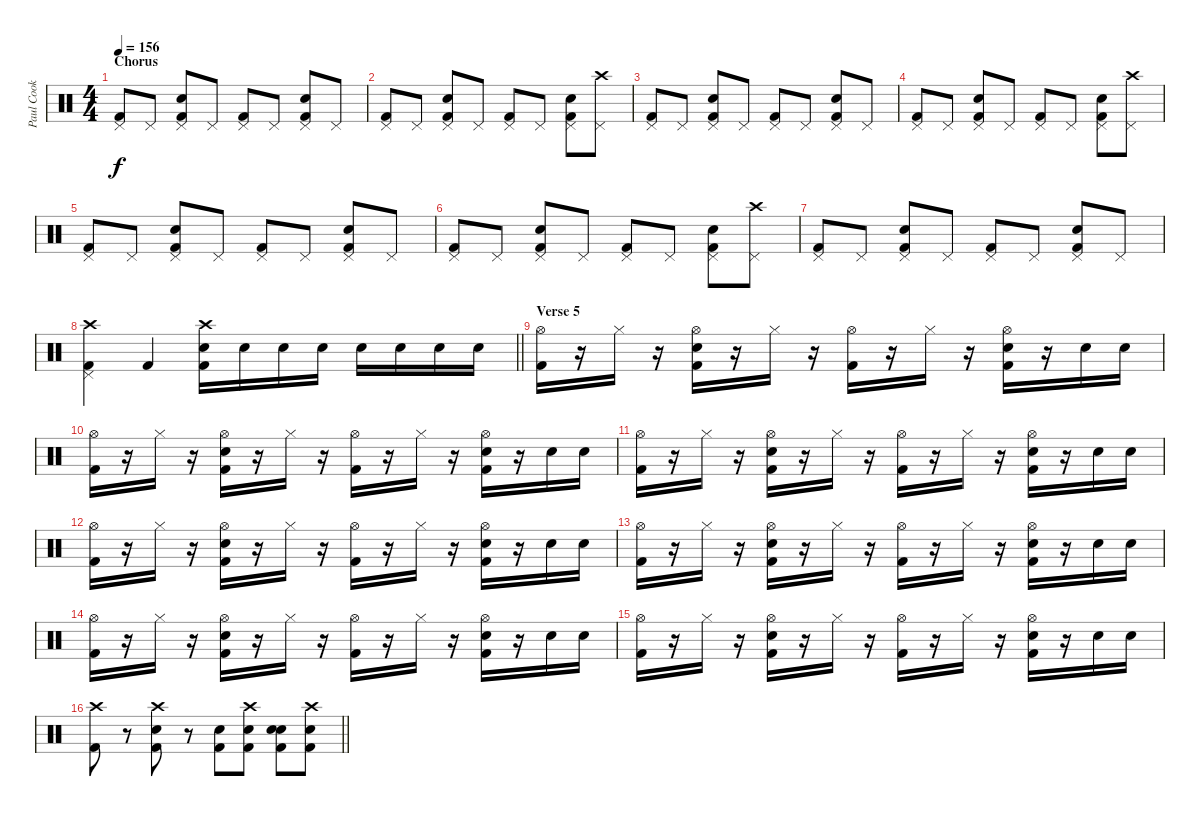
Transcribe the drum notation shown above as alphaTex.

\track ("Paul Cook" "Paul Cook") {instrument percussion}
\staff {score}
\articulation defaults
\ts (4 4)
\section ("" "Chorus")
\tempo 156
\clef neutral
\ks c
("Pedal Hi-Hat (hit)" "Kick (hit) 2").8{dy f} "Pedal Hi-Hat (hit)".8 ("Pedal Hi-Hat (hit)" "Kick (hit) 2" "Snare (hit) 2").8 "Pedal Hi-Hat (hit)".8 ("Pedal Hi-Hat (hit)" "Kick (hit) 2").8 "Pedal Hi-Hat (hit)".8 ("Pedal Hi-Hat (hit)" "Kick (hit) 2" "Snare (hit) 2").8 "Pedal Hi-Hat (hit)".8 |
("Pedal Hi-Hat (hit)" "Kick (hit) 2").8 "Pedal Hi-Hat (hit)".8 ("Pedal Hi-Hat (hit)" "Kick (hit) 2" "Snare (hit) 2").8 "Pedal Hi-Hat (hit)".8 ("Pedal Hi-Hat (hit)" "Kick (hit) 2").8 "Pedal Hi-Hat (hit)".8 ("Pedal Hi-Hat (hit)" "Kick (hit) 2" "Snare (hit) 2").8 ("Pedal Hi-Hat (hit)" "Crash high (hit)").8 |
("Pedal Hi-Hat (hit)" "Kick (hit) 2").8 "Pedal Hi-Hat (hit)".8 ("Pedal Hi-Hat (hit)" "Kick (hit) 2" "Snare (hit) 2").8 "Pedal Hi-Hat (hit)".8 ("Pedal Hi-Hat (hit)" "Kick (hit) 2").8 "Pedal Hi-Hat (hit)".8 ("Pedal Hi-Hat (hit)" "Kick (hit) 2" "Snare (hit) 2").8 "Pedal Hi-Hat (hit)".8 |
("Pedal Hi-Hat (hit)" "Kick (hit) 2").8 "Pedal Hi-Hat (hit)".8 ("Pedal Hi-Hat (hit)" "Kick (hit) 2" "Snare (hit) 2").8 "Pedal Hi-Hat (hit)".8 ("Pedal Hi-Hat (hit)" "Kick (hit) 2").8 "Pedal Hi-Hat (hit)".8 ("Pedal Hi-Hat (hit)" "Kick (hit) 2" "Snare (hit) 2").8 ("Pedal Hi-Hat (hit)" "Crash high (hit)").8 |
("Pedal Hi-Hat (hit)" "Kick (hit) 2").8 "Pedal Hi-Hat (hit)".8 ("Pedal Hi-Hat (hit)" "Kick (hit) 2" "Snare (hit) 2").8 "Pedal Hi-Hat (hit)".8 ("Pedal Hi-Hat (hit)" "Kick (hit) 2").8 "Pedal Hi-Hat (hit)".8 ("Pedal Hi-Hat (hit)" "Kick (hit) 2" "Snare (hit) 2").8 "Pedal Hi-Hat (hit)".8 |
("Pedal Hi-Hat (hit)" "Kick (hit) 2").8 "Pedal Hi-Hat (hit)".8 ("Pedal Hi-Hat (hit)" "Kick (hit) 2" "Snare (hit) 2").8 "Pedal Hi-Hat (hit)".8 ("Pedal Hi-Hat (hit)" "Kick (hit) 2").8 "Pedal Hi-Hat (hit)".8 ("Pedal Hi-Hat (hit)" "Kick (hit) 2" "Snare (hit) 2").8 ("Pedal Hi-Hat (hit)" "Crash high (hit)").8 |
("Pedal Hi-Hat (hit)" "Kick (hit) 2").8 "Pedal Hi-Hat (hit)".8 ("Pedal Hi-Hat (hit)" "Kick (hit) 2" "Snare (hit) 2").8 "Pedal Hi-Hat (hit)".8 ("Pedal Hi-Hat (hit)" "Kick (hit) 2").8 "Pedal Hi-Hat (hit)".8 ("Pedal Hi-Hat (hit)" "Kick (hit) 2" "Snare (hit) 2").8 "Pedal Hi-Hat (hit)".8 |
\barLineRight lightlight
("Kick (hit) 2" "Crash high (hit)" "Pedal Hi-Hat (hit)").4 "Kick (hit) 2".4 ("Kick (hit) 2" "Crash high (hit)" "Snare (hit) 2").16 "Snare (hit) 2".16 "Snare (hit) 2".16 "Snare (hit) 2".16 "Electric Snare (hit)".16 "Electric Snare (hit)".16 "Electric Snare (hit)".16 "Electric Snare (hit)".16 |
\section ("" "Verse 5")
("Hi-Hat (open)" "Kick (hit) 2").16 r.16 "Hi-Hat (closed)".16 r.16 ("Hi-Hat (open)" "Kick (hit) 2" "Snare (hit) 2").16 r.16 "Hi-Hat (closed)".16 r.16 ("Hi-Hat (open)" "Kick (hit) 2").16 r.16 "Hi-Hat (closed)".16 r.16 ("Hi-Hat (open)" "Kick (hit) 2" "Snare (hit) 2").16 r.16 "Snare (hit) 2".16 "Snare (hit) 2".16 |
("Hi-Hat (open)" "Kick (hit) 2").16 r.16 "Hi-Hat (closed)".16 r.16 ("Hi-Hat (open)" "Kick (hit) 2" "Snare (hit) 2").16 r.16 "Hi-Hat (closed)".16 r.16 ("Hi-Hat (open)" "Kick (hit) 2").16 r.16 "Hi-Hat (closed)".16 r.16 ("Hi-Hat (open)" "Kick (hit) 2" "Snare (hit) 2").16 r.16 "Snare (hit) 2".16 "Snare (hit) 2".16 |
("Hi-Hat (open)" "Kick (hit) 2").16 r.16 "Hi-Hat (closed)".16 r.16 ("Hi-Hat (open)" "Kick (hit) 2" "Snare (hit) 2").16 r.16 "Hi-Hat (closed)".16 r.16 ("Hi-Hat (open)" "Kick (hit) 2").16 r.16 "Hi-Hat (closed)".16 r.16 ("Hi-Hat (open)" "Kick (hit) 2" "Snare (hit) 2").16 r.16 "Snare (hit) 2".16 "Snare (hit) 2".16 |
("Hi-Hat (open)" "Kick (hit) 2").16 r.16 "Hi-Hat (closed)".16 r.16 ("Hi-Hat (open)" "Kick (hit) 2" "Snare (hit) 2").16 r.16 "Hi-Hat (closed)".16 r.16 ("Hi-Hat (open)" "Kick (hit) 2").16 r.16 "Hi-Hat (closed)".16 r.16 ("Hi-Hat (open)" "Kick (hit) 2" "Snare (hit) 2").16 r.16 "Snare (hit) 2".16 "Snare (hit) 2".16 |
("Hi-Hat (open)" "Kick (hit) 2").16 r.16 "Hi-Hat (closed)".16 r.16 ("Hi-Hat (open)" "Kick (hit) 2" "Snare (hit) 2").16 r.16 "Hi-Hat (closed)".16 r.16 ("Hi-Hat (open)" "Kick (hit) 2").16 r.16 "Hi-Hat (closed)".16 r.16 ("Hi-Hat (open)" "Kick (hit) 2" "Snare (hit) 2").16 r.16 "Snare (hit) 2".16 "Snare (hit) 2".16 |
("Hi-Hat (open)" "Kick (hit) 2").16 r.16 "Hi-Hat (closed)".16 r.16 ("Hi-Hat (open)" "Kick (hit) 2" "Snare (hit) 2").16 r.16 "Hi-Hat (closed)".16 r.16 ("Hi-Hat (open)" "Kick (hit) 2").16 r.16 "Hi-Hat (closed)".16 r.16 ("Hi-Hat (open)" "Kick (hit) 2" "Snare (hit) 2").16 r.16 "Snare (hit) 2".16 "Snare (hit) 2".16 |
("Hi-Hat (open)" "Kick (hit) 2").16 r.16 "Hi-Hat (closed)".16 r.16 ("Hi-Hat (open)" "Kick (hit) 2" "Snare (hit) 2").16 r.16 "Hi-Hat (closed)".16 r.16 ("Hi-Hat (open)" "Kick (hit) 2").16 r.16 "Hi-Hat (closed)".16 r.16 ("Hi-Hat (open)" "Kick (hit) 2" "Snare (hit) 2").16 r.16 "Snare (hit) 2".16 "Snare (hit) 2".16 |
\barLineRight lightlight
("Kick (hit) 2" "Crash high (hit)").8 r.8 ("Kick (hit) 2" "Snare (hit) 2" "Crash high (hit)").8 r.8 ("Kick (hit) 2" "Snare (hit) 2").8 ("Kick (hit) 2" "Crash high (hit)" "Snare (hit) 2").8 ("Kick (hit) 2" "Snare (hit) 2" "Snare (hit) 2").8 ("Kick (hit) 2" "Crash high (hit)" "Snare (hit) 2").8
